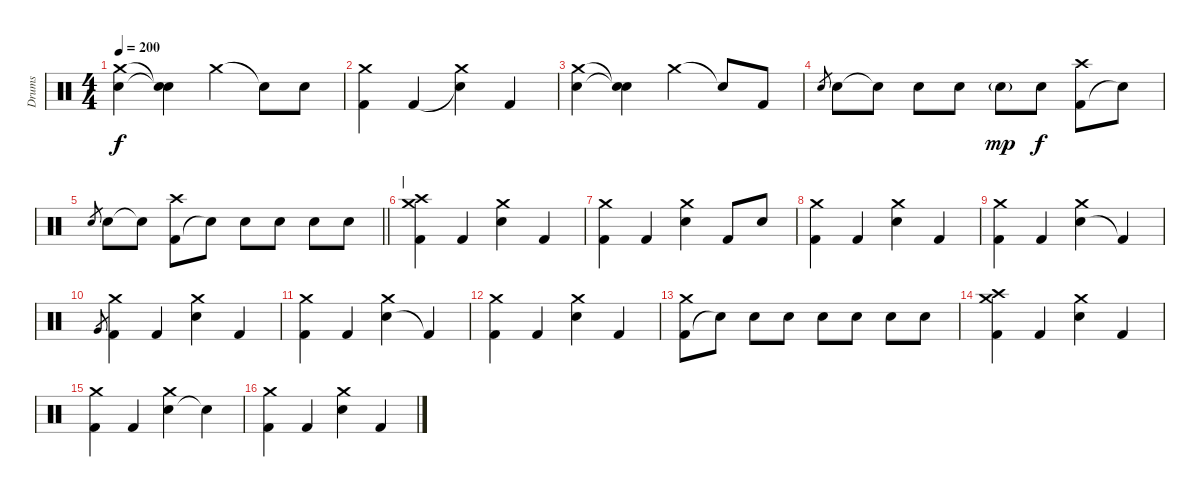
\track ("Drums" "Drums") {instrument percussion}
\staff {score}
\articulation defaults
\ts (4 4)
\tempo 200
\clef neutral
\ks c
("Electric Snare (hit)" "Crash medium (hit)").4{dy f} ("Electric Snare (hit)"{t} "Snare (hit)"{t}).4 "Crash medium (hit)".4 "Snare (hit)"{t}.8 "Electric Snare (hit)".8 |
("Kick (hit) 2" "Crash medium (hit)").4 "Kick (hit) 2".4 ("Snare (hit)"{t} "Crash medium (hit)").4 "Kick (hit) 2".4 |
("Electric Snare (hit)" "Crash medium (hit)").4 ("Electric Snare (hit)"{t} "Snare (hit)"{t}).4 "Crash medium (hit)".4 "Snare (hit)"{t}.8 "Kick (hit) 2".8 |
"Electric Snare (hit)".8{gr} "Electric Snare (hit)".8 "Snare (hit)"{t}.8 "Electric Snare (hit)".8 "Electric Snare (hit)".8 "Electric Snare (hit)"{g}.8{dy mp} "Electric Snare (hit)".8{dy f} ("Kick (hit) 2" "Crash high (hit)").8 "Snare (hit)"{t}.8 |
\barLineRight lightlight "Electric Snare (hit)".8{gr} "Electric Snare (hit)".8 "Snare (hit)"{t}.8
("Kick (hit) 2" "Crash high (hit)").8 "Snare (hit)"{t}.8 "Electric Snare (hit)".8 "Electric Snare (hit)".8 "Electric Snare (hit)".8 "Electric Snare (hit)".8 |
\section ("" "|")
("Kick (hit) 2" "Crash medium (hit)" "Crash high (hit)").4 "Kick (hit) 2".4 ("Electric Snare (hit)" "Crash medium (hit)").4 "Kick (hit) 2".4 |
("Kick (hit) 2" "Crash medium (hit)").4 "Kick (hit) 2".4 ("Electric Snare (hit)" "Crash medium (hit)").4 "Kick (hit) 2".8 "Electric Snare (hit)".8 |
("Kick (hit) 2" "Crash medium (hit)").4 "Kick (hit) 2".4 ("Electric Snare (hit)" "Crash medium (hit)").4 "Kick (hit) 2".4 |
("Kick (hit) 2" "Crash medium (hit)").4 "Kick (hit) 2".4 ("Electric Snare (hit)" "Crash medium (hit)").4 "Kick (hit) 2"{t}.4 |
"Very Low Tom (hit)".8{gr} ("Kick (hit) 2" "Crash medium (hit)").4 "Kick (hit) 2".4 ("Electric Snare (hit)" "Crash medium (hit)").4 "Kick (hit) 2".4 |
("Kick (hit) 2" "Crash medium (hit)").4 "Kick (hit) 2".4 ("Electric Snare (hit)" "Crash medium (hit)").4 "Kick (hit) 2"{t}.4 |
("Kick (hit) 2" "Crash medium (hit)").4 "Kick (hit) 2".4 ("Electric Snare (hit)" "Crash medium (hit)").4 "Kick (hit) 2".4 |
("Kick (hit) 2" "Crash medium (hit)").8 "Electric Snare (hit)"{t}.8 "Electric Snare (hit)".8 "Electric Snare (hit)".8 "Electric Snare (hit)".8 "Electric Snare (hit)".8 "Electric Snare (hit)".8 "Electric Snare (hit)".8 |
("Kick (hit) 2" "Crash medium (hit)" "Crash high (hit)").4 "Kick (hit) 2".4 ("Electric Snare (hit)" "Crash medium (hit)").4 "Kick (hit) 2".4 |
("Kick (hit) 2" "Crash medium (hit)").4 "Kick (hit) 2".4 ("Electric Snare (hit)" "Crash medium (hit)").4 "Snare (hit)"{t}.4 |
("Kick (hit) 2" "Crash medium (hit)").4 "Kick (hit) 2".4 ("Electric Snare (hit)" "Crash medium (hit)").4 "Kick (hit) 2".4
